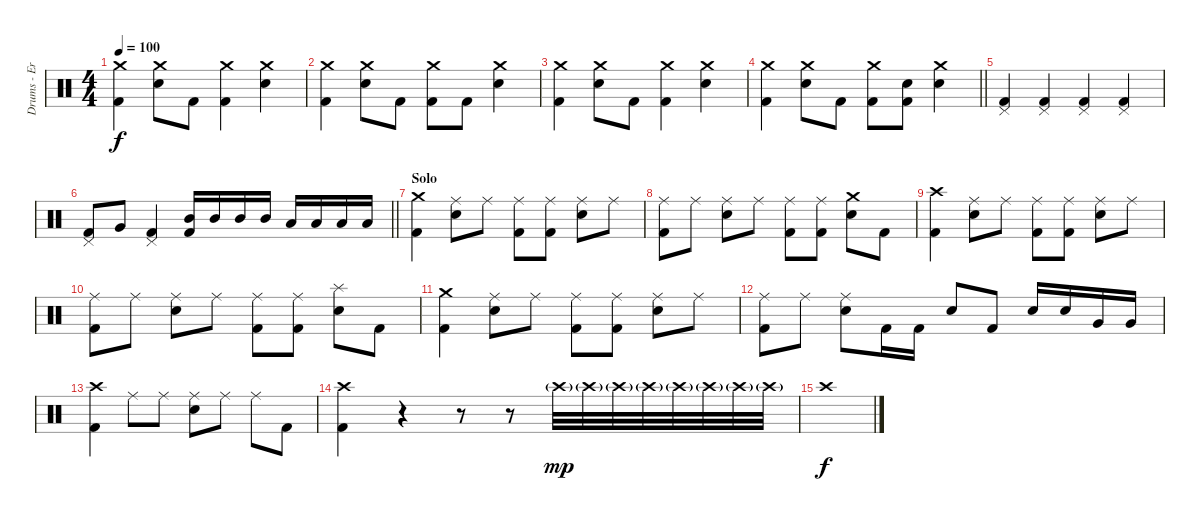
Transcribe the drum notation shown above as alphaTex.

\track ("Drums - Eric Young" "Drums - Er") {instrument percussion}
\staff {score}
\articulation defaults
\ts (4 4)
\tempo 100
\clef neutral
\ks c
("Crash medium (hit)" "Kick (hit) 2").4{dy f} ("Crash medium (hit)" "Electric Snare (hit)").8 "Kick (hit) 2".8 ("Crash medium (hit)" "Kick (hit) 2").4 ("Crash medium (hit)" "Electric Snare (hit)").4 |
("Crash medium (hit)" "Kick (hit) 2").4 ("Crash medium (hit)" "Electric Snare (hit)").8 "Kick (hit) 2".8 ("Crash medium (hit)" "Kick (hit) 2").8 "Kick (hit) 2".8 ("Crash medium (hit)" "Electric Snare (hit)").4 |
("Crash medium (hit)" "Kick (hit) 2").4 ("Crash medium (hit)" "Electric Snare (hit)").8 "Kick (hit) 2".8 ("Crash medium (hit)" "Kick (hit) 2").4 ("Crash medium (hit)" "Electric Snare (hit)").4 |
\barLineRight lightlight
("Crash medium (hit)" "Kick (hit) 2").4 ("Crash medium (hit)" "Electric Snare (hit)").8 "Kick (hit) 2".8 ("Crash medium (hit)" "Kick (hit) 2").8 ("Electric Snare (hit)" "Kick (hit) 2").8 ("Crash medium (hit)" "Electric Snare (hit)").4 |
("Pedal Hi-Hat (hit)" "Kick (hit) 2").4 ("Pedal Hi-Hat (hit)" "Kick (hit) 2").4 ("Pedal Hi-Hat (hit)" "Kick (hit) 2").4 ("Pedal Hi-Hat (hit)" "Kick (hit) 2").4 |
\barLineRight lightlight
("Pedal Hi-Hat (hit)" "Kick (hit) 2").8 "Very Low Tom (hit)".8 ("Pedal Hi-Hat (hit)" "Kick (hit) 2").4 ("Mid Tom (hit)" "Kick (hit) 2").16 "Mid Tom (hit)".16 "Mid Tom (hit)".16 "Mid Tom (hit)".16 "Low Tom (hit)".16 "Low Tom (hit)".16 "Low Tom (hit)".16 "Low Tom (hit)".16 |
\section ("" "Solo")
("Crash medium (hit)" "Kick (hit) 2").4 ("Ride (middle)" "Electric Snare (hit)").8 "Ride (middle)".8 ("Ride (middle)" "Kick (hit) 2").8 ("Ride (middle)" "Kick (hit) 2").8 ("Ride (middle)" "Electric Snare (hit)").8 "Ride (middle)".8 |
("Ride (middle)" "Kick (hit) 2").8 "Ride (middle)".8 ("Ride (middle)" "Electric Snare (hit)").8 "Ride (middle)".8 ("Ride (middle)" "Kick (hit) 2").8 ("Ride (middle)" "Kick (hit) 2").8 ("Crash medium (hit)" "Electric Snare (hit)").8 "Kick (hit) 2".8 |
("Crash high (hit)" "Kick (hit) 2").4 ("Ride (middle)" "Electric Snare (hit)").8 "Ride (middle)".8 ("Ride (middle)" "Kick (hit) 2").8 ("Ride (middle)" "Kick (hit) 2").8 ("Ride (middle)" "Electric Snare (hit)").8 "Ride (middle)".8 |
("Ride (middle)" "Kick (hit) 2").8 "Ride (middle)".8 ("Ride (middle)" "Electric Snare (hit)").8 "Ride (middle)".8 ("Ride (middle)" "Kick (hit) 2").8 ("Ride (middle)" "Kick (hit) 2").8 ("Splash (hit)" "Electric Snare (hit)").8 "Kick (hit) 2".8 |
("Crash medium (hit)" "Kick (hit) 2").4 ("Ride (middle)" "Electric Snare (hit)").8 "Ride (middle)".8 ("Ride (middle)" "Kick (hit) 2").8 ("Ride (middle)" "Kick (hit) 2").8 ("Ride (middle)" "Electric Snare (hit)").8 "Ride (middle)".8 |
("Ride (middle)" "Kick (hit) 2").8 "Ride (middle)".8 ("Ride (middle)" "Electric Snare (hit)").8 "Kick (hit) 2".16 "Kick (hit) 2".16 "Electric Snare (hit)".8 "Kick (hit) 2".8 "Electric Snare (hit)".16 "Electric Snare (hit)".16 "Very Low Tom (hit)".16 "Very Low Tom (hit)".16 |
("Crash high (hit)" "Kick (hit) 2").4 "Ride (middle)".8 "Ride (middle)".8 ("Ride (middle)" "Electric Snare (hit)").8 "Ride (middle)".8 "Ride (middle)".8 "Kick (hit) 2".8 |
("Crash high (hit)" "Kick (hit) 2").4 r.4 r.8 r.8{volume 0} "Crash high (hit)"{g}.32{dy mp volume 13} "Crash high (hit)"{g}.32 "Crash high (hit)"{g}.32 "Crash high (hit)"{g}.32 "Crash high (hit)"{g}.32 "Crash high (hit)"{g}.32 "Crash high (hit)"{g}.32 "Crash high (hit)"{g}.32 |
"Crash high (hit)".1{dy f}
